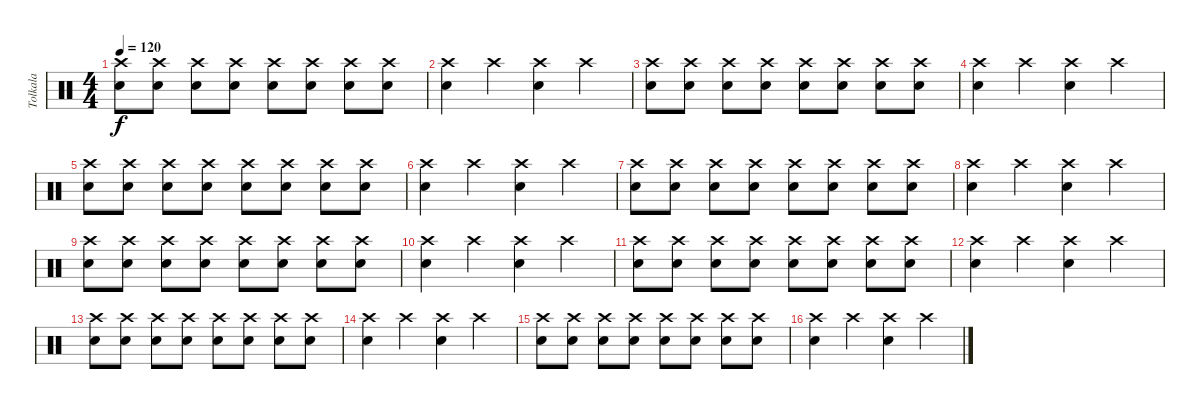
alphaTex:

\track ("Tolkala" "Tolkala") {instrument percussion}
\staff {score}
\articulation defaults
\ts (4 4)
\tempo 120
\clef neutral
\ks c
("Crash high (hit)" "Snare (hit) 2").8{dy f} ("Crash high (hit)" "Snare (hit) 2").8 ("Crash high (hit)" "Snare (hit) 2").8 ("Crash high (hit)" "Snare (hit) 2").8 ("Crash high (hit)" "Snare (hit) 2").8 ("Crash high (hit)" "Snare (hit) 2").8 ("Crash high (hit)" "Snare (hit) 2").8 ("Crash high (hit)" "Snare (hit) 2").8 |
("Crash high (hit)" "Snare (hit) 2").4 "Crash high (hit)".4 ("Crash high (hit)" "Snare (hit) 2").4 "Crash high (hit)".4 |
("Crash high (hit)" "Snare (hit) 2").8 ("Crash high (hit)" "Snare (hit) 2").8 ("Crash high (hit)" "Snare (hit) 2").8 ("Crash high (hit)" "Snare (hit) 2").8 ("Crash high (hit)" "Snare (hit) 2").8 ("Crash high (hit)" "Snare (hit) 2").8 ("Crash high (hit)" "Snare (hit) 2").8 ("Crash high (hit)" "Snare (hit) 2").8 |
("Crash high (hit)" "Snare (hit) 2").4 "Crash high (hit)".4 ("Crash high (hit)" "Snare (hit) 2").4 "Crash high (hit)".4 |
("Crash high (hit)" "Snare (hit) 2").8 ("Crash high (hit)" "Snare (hit) 2").8 ("Crash high (hit)" "Snare (hit) 2").8 ("Crash high (hit)" "Snare (hit) 2").8 ("Crash high (hit)" "Snare (hit) 2").8 ("Crash high (hit)" "Snare (hit) 2").8 ("Crash high (hit)" "Snare (hit) 2").8 ("Crash high (hit)" "Snare (hit) 2").8 |
("Crash high (hit)" "Snare (hit) 2").4 "Crash high (hit)".4 ("Crash high (hit)" "Snare (hit) 2").4 "Crash high (hit)".4 |
("Crash high (hit)" "Snare (hit) 2").8 ("Crash high (hit)" "Snare (hit) 2").8 ("Crash high (hit)" "Snare (hit) 2").8 ("Crash high (hit)" "Snare (hit) 2").8 ("Crash high (hit)" "Snare (hit) 2").8 ("Crash high (hit)" "Snare (hit) 2").8 ("Crash high (hit)" "Snare (hit) 2").8 ("Crash high (hit)" "Snare (hit) 2").8 |
("Crash high (hit)" "Snare (hit) 2").4 "Crash high (hit)".4 ("Crash high (hit)" "Snare (hit) 2").4 "Crash high (hit)".4 |
("Crash high (hit)" "Snare (hit) 2").8 ("Crash high (hit)" "Snare (hit) 2").8 ("Crash high (hit)" "Snare (hit) 2").8 ("Crash high (hit)" "Snare (hit) 2").8 ("Crash high (hit)" "Snare (hit) 2").8 ("Crash high (hit)" "Snare (hit) 2").8 ("Crash high (hit)" "Snare (hit) 2").8 ("Crash high (hit)" "Snare (hit) 2").8 |
("Crash high (hit)" "Snare (hit) 2").4 "Crash high (hit)".4 ("Crash high (hit)" "Snare (hit) 2").4 "Crash high (hit)".4 |
("Crash high (hit)" "Snare (hit) 2").8 ("Crash high (hit)" "Snare (hit) 2").8 ("Crash high (hit)" "Snare (hit) 2").8 ("Crash high (hit)" "Snare (hit) 2").8 ("Crash high (hit)" "Snare (hit) 2").8 ("Crash high (hit)" "Snare (hit) 2").8 ("Crash high (hit)" "Snare (hit) 2").8 ("Crash high (hit)" "Snare (hit) 2").8 |
("Crash high (hit)" "Snare (hit) 2").4 "Crash high (hit)".4 ("Crash high (hit)" "Snare (hit) 2").4 "Crash high (hit)".4 |
("Crash high (hit)" "Snare (hit) 2").8 ("Crash high (hit)" "Snare (hit) 2").8 ("Crash high (hit)" "Snare (hit) 2").8 ("Crash high (hit)" "Snare (hit) 2").8 ("Crash high (hit)" "Snare (hit) 2").8 ("Crash high (hit)" "Snare (hit) 2").8 ("Crash high (hit)" "Snare (hit) 2").8 ("Crash high (hit)" "Snare (hit) 2").8 |
("Crash high (hit)" "Snare (hit) 2").4 "Crash high (hit)".4 ("Crash high (hit)" "Snare (hit) 2").4 "Crash high (hit)".4 |
("Crash high (hit)" "Snare (hit) 2").8 ("Crash high (hit)" "Snare (hit) 2").8 ("Crash high (hit)" "Snare (hit) 2").8 ("Crash high (hit)" "Snare (hit) 2").8 ("Crash high (hit)" "Snare (hit) 2").8 ("Crash high (hit)" "Snare (hit) 2").8 ("Crash high (hit)" "Snare (hit) 2").8 ("Crash high (hit)" "Snare (hit) 2").8 |
("Crash high (hit)" "Snare (hit) 2").4 "Crash high (hit)".4 ("Crash high (hit)" "Snare (hit) 2").4 "Crash high (hit)".4
